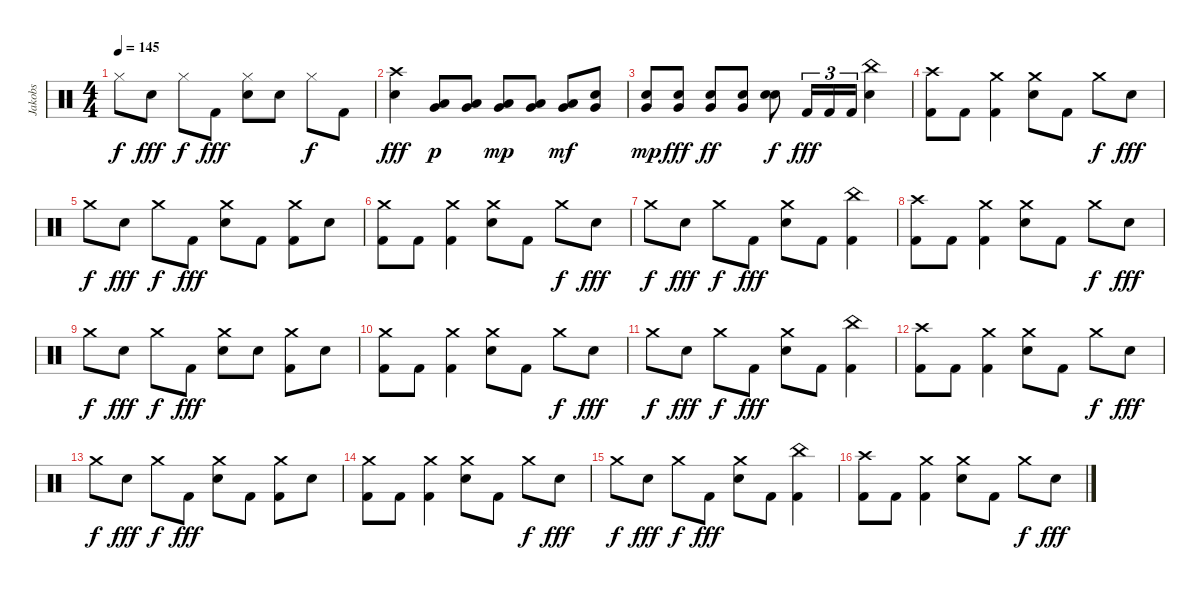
\track ("Jakobs" "Jakobs") {instrument percussion}
\staff {score}
\articulation defaults
\ts (4 4)
\tempo 145
\clef neutral
\ks c "Hi-Hat (closed)".8{dy f} "Snare (hit) 2".8{dy fff} "Hi-Hat (closed)".8{dy f} "Kick (hit) 2".8{dy fff}
("Hi-Hat (closed)" "Snare (hit) 2").8 "Snare (hit) 2".8 "Hi-Hat (closed)".8{dy f} "Kick (hit) 2".8 |
("Crash high (hit)" "Snare (hit) 2").4{dy fff} ("Low Tom (hit)" "Very Low Tom (hit)").8{dy p} ("Low Tom (hit)" "Very Low Tom (hit)").8 ("Low Tom (hit)" "Very Low Tom (hit)").8{dy mp} ("Low Tom (hit)" "Very Low Tom (hit)").8 ("Low Tom (hit)" "Very Low Tom (hit)").8{dy mf} ("Snare (hit) 2" "Very Low Tom (hit)").8 |
("Snare (hit) 2" "Very Low Tom (hit)").8{dy mp} ("Snare (hit) 2" "Very Low Tom (hit)").8{dy fff} ("Snare (hit) 2" "Very Low Tom (hit)").8{dy ff} ("Snare (hit) 2" "Very Low Tom (hit)").8 ("Snare (hit) 2" "Snare (hit) 2").8{dy f} "Kick (hit) 2".16{tu (3 2) dy fff} "Kick (hit) 2".16{tu (3 2)} "Kick (hit) 2".16{tu (3 2)} ("China (hit)" "Snare (hit) 2").4 |
("Crash high (hit)" "Kick (hit) 2").8 "Kick (hit) 2".8 ("Crash medium (hit)" "Kick (hit) 2").4 ("Crash medium (hit)" "Snare (hit) 2").8 "Kick (hit) 2".8 "Crash medium (hit)".8{dy f} "Snare (hit) 2".8{dy fff} |
"Crash medium (hit)".8{dy f} "Snare (hit) 2".8{dy fff} "Crash medium (hit)".8{dy f} "Kick (hit) 2".8{dy fff} ("Crash medium (hit)" "Snare (hit) 2").8 "Kick (hit) 2".8 ("Crash medium (hit)" "Kick (hit) 2").8 "Snare (hit) 2".8 |
("Crash medium (hit)" "Kick (hit) 2").8 "Kick (hit) 2".8 ("Crash medium (hit)" "Kick (hit) 2").4 ("Crash medium (hit)" "Snare (hit) 2").8 "Kick (hit) 2".8 "Crash medium (hit)".8{dy f} "Snare (hit) 2".8{dy fff} |
"Crash medium (hit)".8{dy f} "Snare (hit) 2".8{dy fff} "Crash medium (hit)".8{dy f} "Kick (hit) 2".8{dy fff} ("Crash medium (hit)" "Snare (hit) 2").8 "Kick (hit) 2".8 ("China (hit)" "Kick (hit) 2").4 |
("Crash high (hit)" "Kick (hit) 2").8 "Kick (hit) 2".8 ("Crash medium (hit)" "Kick (hit) 2").4 ("Crash medium (hit)" "Snare (hit) 2").8 "Kick (hit) 2".8 "Crash medium (hit)".8{dy f} "Snare (hit) 2".8{dy fff} |
"Crash medium (hit)".8{dy f} "Snare (hit) 2".8{dy fff} "Crash medium (hit)".8{dy f} "Kick (hit) 2".8{dy fff} ("Crash medium (hit)" "Snare (hit) 2").8 "Snare (hit) 2".8 ("Crash medium (hit)" "Kick (hit) 2").8 "Snare (hit) 2".8 |
("Crash medium (hit)" "Kick (hit) 2").8 "Kick (hit) 2".8 ("Crash medium (hit)" "Kick (hit) 2").4 ("Crash medium (hit)" "Snare (hit) 2").8 "Kick (hit) 2".8 "Crash medium (hit)".8{dy f} "Snare (hit) 2".8{dy fff} |
"Crash medium (hit)".8{dy f} "Snare (hit) 2".8{dy fff} "Crash medium (hit)".8{dy f} "Kick (hit) 2".8{dy fff} ("Crash medium (hit)" "Snare (hit) 2").8 "Kick (hit) 2".8 ("China (hit)" "Kick (hit) 2").4 |
("Crash high (hit)" "Kick (hit) 2").8 "Kick (hit) 2".8 ("Crash medium (hit)" "Kick (hit) 2").4 ("Crash medium (hit)" "Snare (hit) 2").8 "Kick (hit) 2".8 "Crash medium (hit)".8{dy f} "Snare (hit) 2".8{dy fff} |
"Crash medium (hit)".8{dy f} "Snare (hit) 2".8{dy fff} "Crash medium (hit)".8{dy f} "Kick (hit) 2".8{dy fff} ("Crash medium (hit)" "Snare (hit) 2").8 "Kick (hit) 2".8 ("Crash medium (hit)" "Kick (hit) 2").8 "Snare (hit) 2".8 |
("Crash medium (hit)" "Kick (hit) 2").8 "Kick (hit) 2".8 ("Crash medium (hit)" "Kick (hit) 2").4 ("Crash medium (hit)" "Snare (hit) 2").8 "Kick (hit) 2".8 "Crash medium (hit)".8{dy f} "Snare (hit) 2".8{dy fff} |
"Crash medium (hit)".8{dy f} "Snare (hit) 2".8{dy fff} "Crash medium (hit)".8{dy f} "Kick (hit) 2".8{dy fff} ("Crash medium (hit)" "Snare (hit) 2").8 "Kick (hit) 2".8 ("China (hit)" "Kick (hit) 2").4 |
("Crash high (hit)" "Kick (hit) 2").8 "Kick (hit) 2".8 ("Crash medium (hit)" "Kick (hit) 2").4 ("Crash medium (hit)" "Snare (hit) 2").8 "Kick (hit) 2".8 "Crash medium (hit)".8{dy f} "Snare (hit) 2".8{dy fff}
